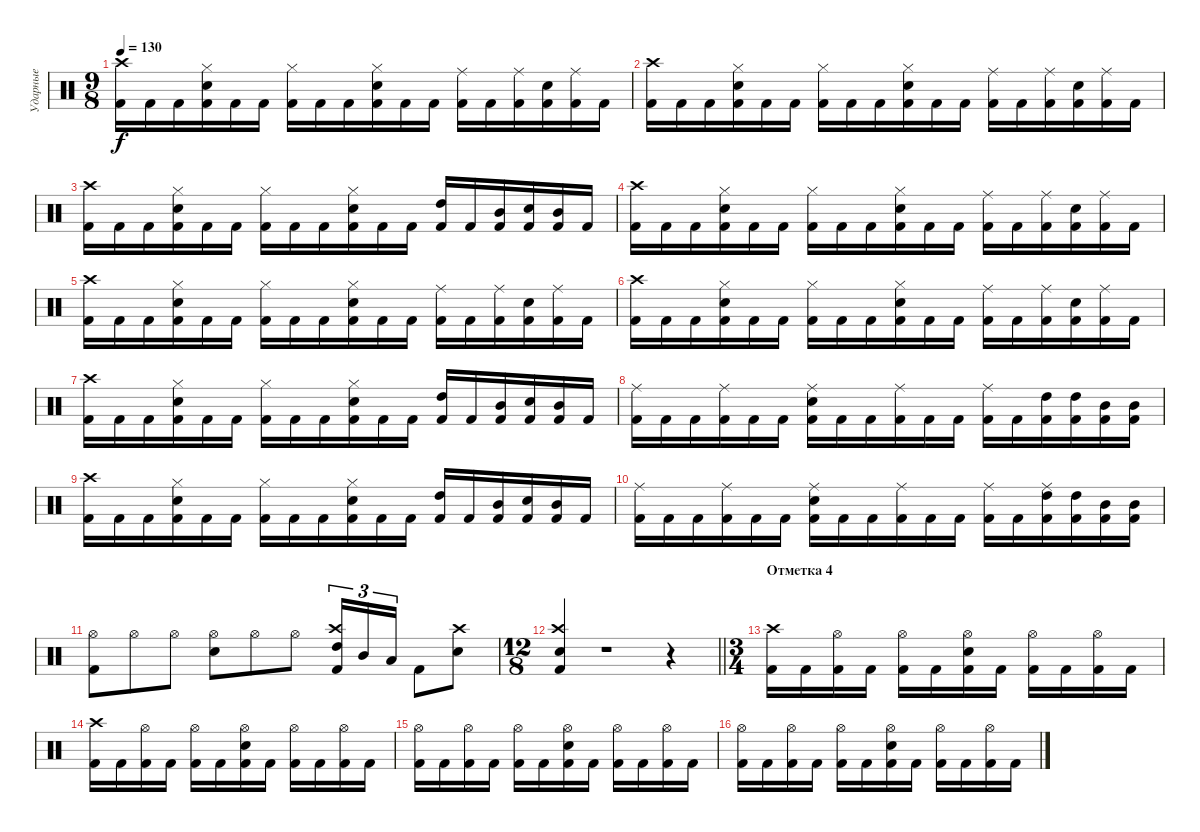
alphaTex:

\track ("Ударные" "Ударные") {instrument percussion}
\staff {score}
\articulation defaults
\ts (9 8)
\tempo 130
\clef neutral
\ks c
("Kick (hit) 2" "Crash high (hit)").16{dy f} "Kick (hit) 2".16 "Kick (hit) 2".16 ("Kick (hit) 2" "Electric Snare (hit)" "Hi-Hat (closed)").16 "Kick (hit) 2".16 "Kick (hit) 2".16 ("Kick (hit) 2" "Hi-Hat (closed)").16 "Kick (hit) 2".16 "Kick (hit) 2".16 ("Kick (hit) 2" "Electric Snare (hit)" "Hi-Hat (closed)").16 "Kick (hit) 2".16 "Kick (hit) 2".16 ("Kick (hit) 2" "Ride (middle)").16 "Kick (hit) 2".16 ("Kick (hit) 2" "Ride (middle)").16 ("Kick (hit) 2" "Electric Snare (hit)").16 ("Kick (hit) 2" "Ride (middle)").16 "Kick (hit) 2".16 |
("Kick (hit) 2" "Crash high (hit)").16 "Kick (hit) 2".16 "Kick (hit) 2".16 ("Kick (hit) 2" "Electric Snare (hit)" "Hi-Hat (closed)").16 "Kick (hit) 2".16 "Kick (hit) 2".16 ("Kick (hit) 2" "Hi-Hat (closed)").16 "Kick (hit) 2".16 "Kick (hit) 2".16 ("Kick (hit) 2" "Electric Snare (hit)" "Hi-Hat (closed)").16 "Kick (hit) 2".16 "Kick (hit) 2".16 ("Kick (hit) 2" "Ride (middle)").16 "Kick (hit) 2".16 ("Kick (hit) 2" "Ride (middle)").16 ("Kick (hit) 2" "Electric Snare (hit)").16 ("Kick (hit) 2" "Ride (middle)").16 "Kick (hit) 2".16 |
("Kick (hit) 2" "Crash high (hit)").16 "Kick (hit) 2".16 "Kick (hit) 2".16 ("Kick (hit) 2" "Electric Snare (hit)" "Hi-Hat (closed)").16 "Kick (hit) 2".16 "Kick (hit) 2".16 ("Kick (hit) 2" "Hi-Hat (closed)").16 "Kick (hit) 2".16 "Kick (hit) 2".16 ("Kick (hit) 2" "Electric Snare (hit)" "Hi-Hat (closed)").16 "Kick (hit) 2".16 "Kick (hit) 2".16 ("Kick (hit) 2" "High Tom (hit)").16 "Kick (hit) 2".16 ("Kick (hit) 2" "Mid Tom (hit)").16 ("Kick (hit) 2" "Electric Snare (hit)").16 ("Kick (hit) 2" "Mid Tom (hit)").16 "Kick (hit) 2".16 |
("Kick (hit) 2" "Crash high (hit)").16 "Kick (hit) 2".16 "Kick (hit) 2".16 ("Kick (hit) 2" "Electric Snare (hit)" "Hi-Hat (closed)").16 "Kick (hit) 2".16 "Kick (hit) 2".16 ("Kick (hit) 2" "Hi-Hat (closed)").16 "Kick (hit) 2".16 "Kick (hit) 2".16 ("Kick (hit) 2" "Electric Snare (hit)" "Hi-Hat (closed)").16 "Kick (hit) 2".16 "Kick (hit) 2".16 ("Kick (hit) 2" "Ride (middle)").16 "Kick (hit) 2".16 ("Kick (hit) 2" "Ride (middle)").16 ("Kick (hit) 2" "Electric Snare (hit)").16 ("Kick (hit) 2" "Ride (middle)").16 "Kick (hit) 2".16 |
("Kick (hit) 2" "Crash high (hit)").16 "Kick (hit) 2".16 "Kick (hit) 2".16 ("Kick (hit) 2" "Electric Snare (hit)" "Hi-Hat (closed)").16 "Kick (hit) 2".16 "Kick (hit) 2".16 ("Kick (hit) 2" "Hi-Hat (closed)").16 "Kick (hit) 2".16 "Kick (hit) 2".16 ("Kick (hit) 2" "Electric Snare (hit)" "Hi-Hat (closed)").16 "Kick (hit) 2".16 "Kick (hit) 2".16 ("Kick (hit) 2" "Ride (middle)").16 "Kick (hit) 2".16 ("Kick (hit) 2" "Ride (middle)").16 ("Kick (hit) 2" "Electric Snare (hit)").16 ("Kick (hit) 2" "Ride (middle)").16 "Kick (hit) 2".16 |
("Kick (hit) 2" "Crash high (hit)").16 "Kick (hit) 2".16 "Kick (hit) 2".16 ("Kick (hit) 2" "Electric Snare (hit)" "Hi-Hat (closed)").16 "Kick (hit) 2".16 "Kick (hit) 2".16 ("Kick (hit) 2" "Hi-Hat (closed)").16 "Kick (hit) 2".16 "Kick (hit) 2".16 ("Kick (hit) 2" "Electric Snare (hit)" "Hi-Hat (closed)").16 "Kick (hit) 2".16 "Kick (hit) 2".16 ("Kick (hit) 2" "Ride (middle)").16 "Kick (hit) 2".16 ("Kick (hit) 2" "Ride (middle)").16 ("Kick (hit) 2" "Electric Snare (hit)").16 ("Kick (hit) 2" "Ride (middle)").16 "Kick (hit) 2".16 |
("Kick (hit) 2" "Crash high (hit)").16 "Kick (hit) 2".16 "Kick (hit) 2".16 ("Kick (hit) 2" "Electric Snare (hit)" "Hi-Hat (closed)").16 "Kick (hit) 2".16 "Kick (hit) 2".16 ("Kick (hit) 2" "Hi-Hat (closed)").16 "Kick (hit) 2".16 "Kick (hit) 2".16 ("Kick (hit) 2" "Electric Snare (hit)" "Hi-Hat (closed)").16 "Kick (hit) 2".16 "Kick (hit) 2".16 ("Kick (hit) 2" "High Tom (hit)").16 "Kick (hit) 2".16 ("Kick (hit) 2" "Mid Tom (hit)").16 ("Kick (hit) 2" "Electric Snare (hit)").16 ("Kick (hit) 2" "Mid Tom (hit)").16 "Kick (hit) 2".16 |
("Kick (hit) 2" "Ride (middle)").16 "Kick (hit) 2".16 "Kick (hit) 2".16 ("Kick (hit) 2" "Ride (middle)").16 "Kick (hit) 2".16 "Kick (hit) 2".16 ("Kick (hit) 2" "Electric Snare (hit)" "Ride (middle)").16 "Kick (hit) 2".16 "Kick (hit) 2".16 ("Kick (hit) 2" "Ride (middle)").16 "Kick (hit) 2".16 "Kick (hit) 2".16 ("Kick (hit) 2" "Ride (middle)").16 "Kick (hit) 2".16 ("Kick (hit) 2" "High Tom (hit)").16 ("Kick (hit) 2" "High Tom (hit)").16 ("Kick (hit) 2" "Mid Tom (hit)").16 ("Kick (hit) 2" "Mid Tom (hit)").16 |
("Kick (hit) 2" "Crash high (hit)").16 "Kick (hit) 2".16 "Kick (hit) 2".16 ("Kick (hit) 2" "Electric Snare (hit)" "Hi-Hat (closed)").16 "Kick (hit) 2".16 "Kick (hit) 2".16 ("Kick (hit) 2" "Hi-Hat (closed)").16 "Kick (hit) 2".16 "Kick (hit) 2".16 ("Kick (hit) 2" "Electric Snare (hit)" "Hi-Hat (closed)").16 "Kick (hit) 2".16 "Kick (hit) 2".16 ("Kick (hit) 2" "High Tom (hit)").16 "Kick (hit) 2".16 ("Kick (hit) 2" "Mid Tom (hit)").16 ("Kick (hit) 2" "Electric Snare (hit)").16 ("Kick (hit) 2" "Mid Tom (hit)").16 "Kick (hit) 2".16 |
("Kick (hit) 2" "Ride (middle)").16 "Kick (hit) 2".16 "Kick (hit) 2".16 ("Kick (hit) 2" "Ride (middle)").16 "Kick (hit) 2".16 "Kick (hit) 2".16 ("Kick (hit) 2" "Electric Snare (hit)" "Ride (middle)").16 "Kick (hit) 2".16 "Kick (hit) 2".16 ("Kick (hit) 2" "Ride (middle)").16 "Kick (hit) 2".16 "Kick (hit) 2".16 ("Kick (hit) 2" "Ride (middle)").16 "Kick (hit) 2".16 ("Kick (hit) 2" "High Tom (hit)" "Ride (middle)").16 ("Kick (hit) 2" "High Tom (hit)").16 ("Kick (hit) 2" "Mid Tom (hit)").16 ("Kick (hit) 2" "Mid Tom (hit)").16 |
("Kick (hit) 2" "Hi-Hat (open)").8 "Hi-Hat (open)".8 "Hi-Hat (open)".8 ("Electric Snare (hit)" "Hi-Hat (open)").8 "Hi-Hat (open)".8 "Hi-Hat (open)".8 ("Crash high (hit)" "Kick (hit) 2" "High Tom (hit)").16{tu (3 2)} "Mid Tom (hit)".16{tu (3 2)} "Low Tom (hit)".16{tu (3 2)} "Kick (hit) 2".8 ("Crash high (hit)" "Electric Snare (hit)").8 |
\ts (12 8)
\barLineRight lightlight
("Crash high (hit)" "Electric Snare (hit)" "Kick (hit) 2").4 r.1 r.4 |
\ts (3 4)
\section ("" "Отметка 4")
("Kick (hit) 2" "Crash high (hit)").16 "Kick (hit) 2".16 ("Kick (hit) 2" "Hi-Hat (open)").16 "Kick (hit) 2".16 ("Kick (hit) 2" "Hi-Hat (open)").16 "Kick (hit) 2".16 ("Kick (hit) 2" "Electric Snare (hit)" "Hi-Hat (open)").16 "Kick (hit) 2".16 ("Kick (hit) 2" "Hi-Hat (open)").16 "Kick (hit) 2".16 ("Kick (hit) 2" "Hi-Hat (open)").16 "Kick (hit) 2".16 |
("Kick (hit) 2" "Crash high (hit)").16 "Kick (hit) 2".16 ("Kick (hit) 2" "Hi-Hat (open)").16 "Kick (hit) 2".16 ("Kick (hit) 2" "Hi-Hat (open)").16 "Kick (hit) 2".16 ("Kick (hit) 2" "Electric Snare (hit)" "Hi-Hat (open)").16 "Kick (hit) 2".16 ("Kick (hit) 2" "Hi-Hat (open)").16 "Kick (hit) 2".16 ("Kick (hit) 2" "Hi-Hat (open)").16 "Kick (hit) 2".16 |
("Kick (hit) 2" "Hi-Hat (open)").16 "Kick (hit) 2".16 ("Kick (hit) 2" "Hi-Hat (open)").16 "Kick (hit) 2".16 ("Kick (hit) 2" "Hi-Hat (open)").16 "Kick (hit) 2".16 ("Kick (hit) 2" "Electric Snare (hit)" "Hi-Hat (open)").16 "Kick (hit) 2".16 ("Kick (hit) 2" "Hi-Hat (open)").16 "Kick (hit) 2".16 ("Kick (hit) 2" "Hi-Hat (open)").16 "Kick (hit) 2".16 |
("Kick (hit) 2" "Hi-Hat (open)").16 "Kick (hit) 2".16 ("Kick (hit) 2" "Hi-Hat (open)").16 "Kick (hit) 2".16 ("Kick (hit) 2" "Hi-Hat (open)").16 "Kick (hit) 2".16 ("Kick (hit) 2" "Electric Snare (hit)" "Hi-Hat (open)").16 "Kick (hit) 2".16 ("Kick (hit) 2" "Hi-Hat (open)").16 "Kick (hit) 2".16 ("Kick (hit) 2" "Hi-Hat (open)").16 "Kick (hit) 2".16
